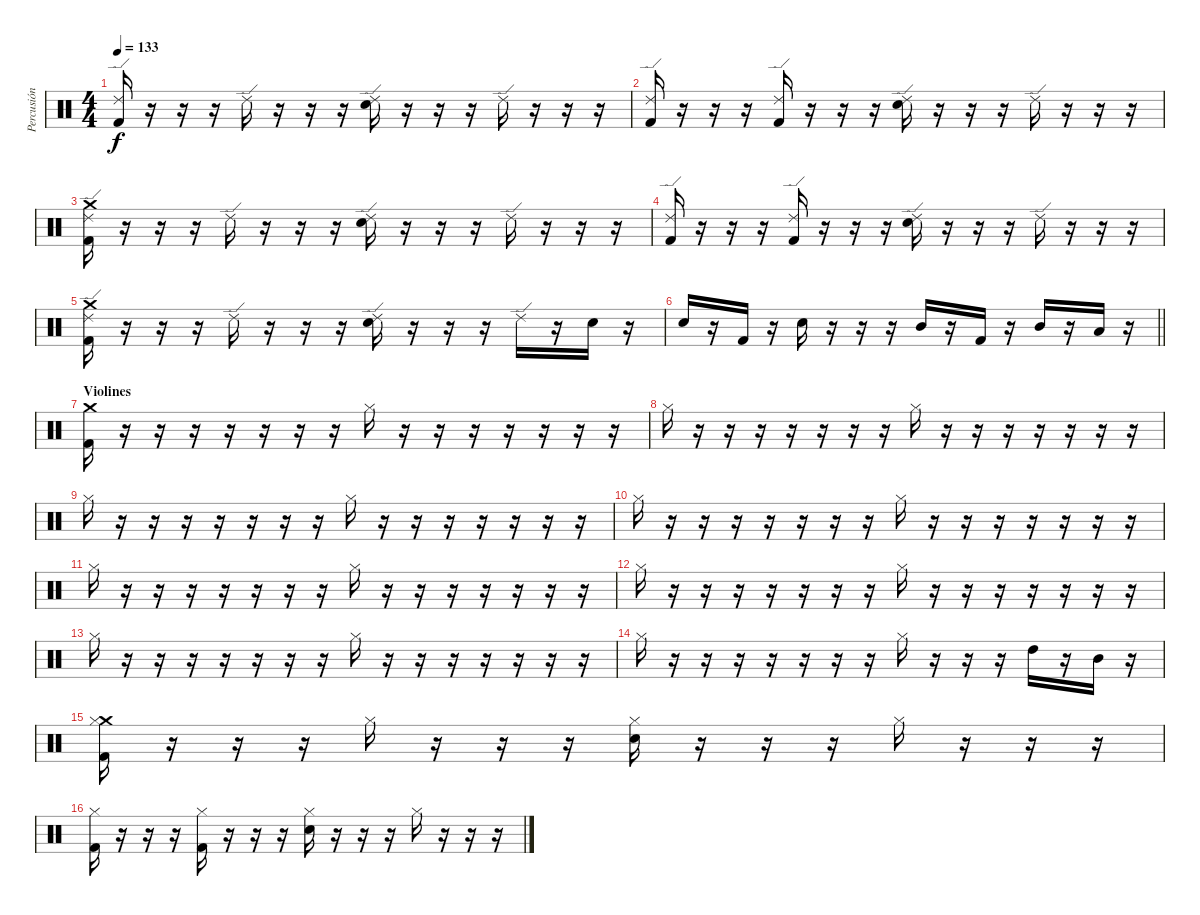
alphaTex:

\track ("Percusión" "Percusión") {instrument percussion}
\staff {score}
\articulation defaults
\ts (4 4)
\tempo 133
\clef neutral
\ks c
("Ride (edge) 2" "Kick (hit) 2").16{dy f} r.16 r.16 r.16 "Ride (edge) 2".16 r.16 r.16 r.16 ("Ride (edge) 2" "Snare (hit) 2").16 r.16 r.16 r.16 "Ride (edge) 2".16 r.16 r.16 r.16 |
("Ride (edge) 2" "Kick (hit) 2").16 r.16 r.16 r.16 ("Ride (edge) 2" "Kick (hit) 2").16 r.16 r.16 r.16 ("Ride (edge) 2" "Snare (hit) 2").16 r.16 r.16 r.16 "Ride (edge) 2".16 r.16 r.16 r.16 |
("Crash medium (hit)" "Ride (edge) 2" "Kick (hit) 2").16 r.16 r.16 r.16 "Ride (edge) 2".16 r.16 r.16 r.16 ("Ride (edge) 2" "Snare (hit) 2").16 r.16 r.16 r.16 "Ride (edge) 2".16 r.16 r.16 r.16 |
("Ride (edge) 2" "Kick (hit) 2").16 r.16 r.16 r.16 ("Ride (edge) 2" "Kick (hit) 2").16 r.16 r.16 r.16 ("Ride (edge) 2" "Snare (hit) 2").16 r.16 r.16 r.16 "Ride (edge) 2".16 r.16 r.16 r.16 |
("Crash medium (hit)" "Ride (edge) 2" "Kick (hit) 2").16 r.16 r.16 r.16 "Ride (edge) 2".16 r.16 r.16 r.16 ("Ride (edge) 2" "Snare (hit) 2").16 r.16 r.16 r.16 "Ride (edge) 2".16 r.16 "Snare (hit) 2".16 r.16 |
\barLineRight lightlight "Snare (hit) 2".16
r.16 "Kick (hit) 2".16 r.16 "Snare (hit) 2".16 r.16 r.16 r.16 "Mid Tom (hit)".16 r.16 "Kick (hit) 2".16 r.16 "Mid Tom (hit)".16 r.16 "Low Tom (hit)".16 r.16 |
\section ("" "Violines")
("Crash medium (hit)" "Kick (hit) 2").16 r.16 r.16 r.16 r.16 r.16 r.16 r.16 "Hi-Hat (closed)".16 r.16 r.16 r.16 r.16 r.16 r.16 r.16 |
"Hi-Hat (closed)".16 r.16 r.16 r.16 r.16 r.16 r.16 r.16 "Hi-Hat (closed)".16 r.16 r.16 r.16 r.16 r.16 r.16 r.16 |
"Hi-Hat (closed)".16 r.16 r.16 r.16 r.16 r.16 r.16 r.16 "Hi-Hat (closed)".16 r.16 r.16 r.16 r.16 r.16 r.16 r.16 |
"Hi-Hat (closed)".16 r.16 r.16 r.16 r.16 r.16 r.16 r.16 "Hi-Hat (closed)".16 r.16 r.16 r.16 r.16 r.16 r.16 r.16 |
"Hi-Hat (closed)".16 r.16 r.16 r.16 r.16 r.16 r.16 r.16 "Hi-Hat (closed)".16 r.16 r.16 r.16 r.16 r.16 r.16 r.16 |
"Hi-Hat (closed)".16 r.16 r.16 r.16 r.16 r.16 r.16 r.16 "Hi-Hat (closed)".16 r.16 r.16 r.16 r.16 r.16 r.16 r.16 |
"Hi-Hat (closed)".16 r.16 r.16 r.16 r.16 r.16 r.16 r.16 "Hi-Hat (closed)".16 r.16 r.16 r.16 r.16 r.16 r.16 r.16 |
"Hi-Hat (closed)".16 r.16 r.16 r.16 r.16 r.16 r.16 r.16 "Hi-Hat (closed)".16 r.16 r.16 r.16 "High Tom (hit)".16 r.16 "Mid Tom (hit)".16 r.16 |
("Crash medium (hit)" "Hi-Hat (closed)" "Kick (hit) 2").16 r.16 r.16 r.16 "Hi-Hat (closed)".16 r.16 r.16 r.16 ("Hi-Hat (closed)" "Snare (hit) 2").16 r.16 r.16 r.16 "Hi-Hat (closed)".16 r.16 r.16 r.16 |
("Hi-Hat (closed)" "Kick (hit) 2").16 r.16 r.16 r.16 ("Hi-Hat (closed)" "Kick (hit) 2").16 r.16 r.16 r.16 ("Hi-Hat (closed)" "Snare (hit) 2").16 r.16 r.16 r.16 "Hi-Hat (closed)".16 r.16 r.16 r.16
